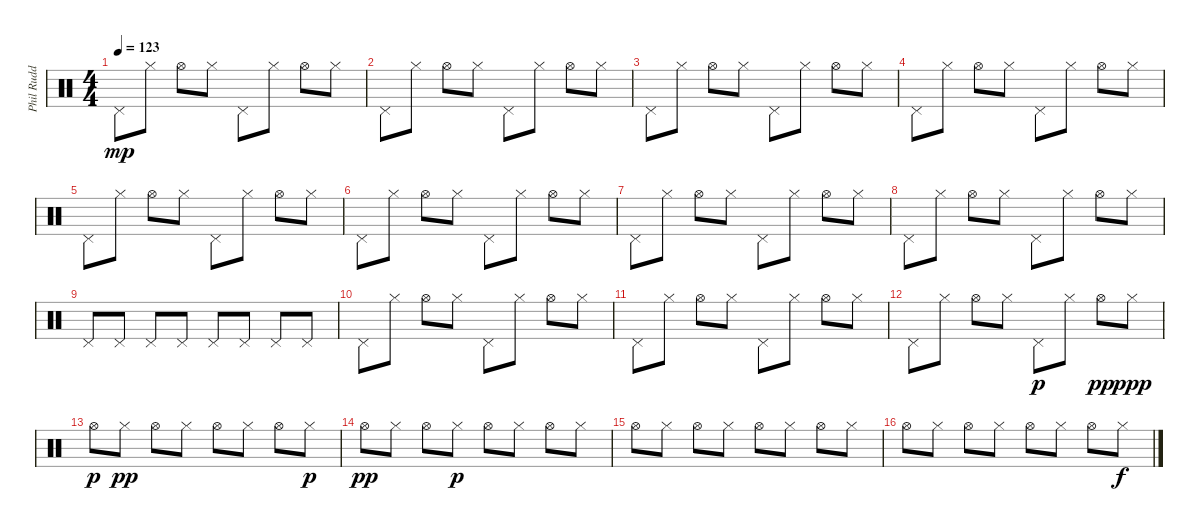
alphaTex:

\track ("Phil Rudd (HiHat)" "Phil Rudd ") {instrument percussion}
\staff {score}
\articulation defaults
\ts (4 4)
\tempo 123
\clef neutral
\ks c "Pedal Hi-Hat (hit)".8{dy mp} "Hi-Hat (closed)".8 "Hi-Hat (open)".8 "Hi-Hat (closed)".8 "Pedal Hi-Hat (hit)".8 "Hi-Hat (closed)".8 "Hi-Hat (open)".8 "Hi-Hat (closed)".8
|
"Pedal Hi-Hat (hit)".8 "Hi-Hat (closed)".8 "Hi-Hat (open)".8 "Hi-Hat (closed)".8 "Pedal Hi-Hat (hit)".8 "Hi-Hat (closed)".8 "Hi-Hat (open)".8 "Hi-Hat (closed)".8 |
"Pedal Hi-Hat (hit)".8 "Hi-Hat (closed)".8 "Hi-Hat (open)".8 "Hi-Hat (closed)".8 "Pedal Hi-Hat (hit)".8 "Hi-Hat (closed)".8 "Hi-Hat (open)".8 "Hi-Hat (closed)".8 |
"Pedal Hi-Hat (hit)".8 "Hi-Hat (closed)".8 "Hi-Hat (open)".8 "Hi-Hat (closed)".8 "Pedal Hi-Hat (hit)".8 "Hi-Hat (closed)".8 "Hi-Hat (open)".8 "Hi-Hat (closed)".8 |
"Pedal Hi-Hat (hit)".8 "Hi-Hat (closed)".8 "Hi-Hat (open)".8 "Hi-Hat (closed)".8 "Pedal Hi-Hat (hit)".8 "Hi-Hat (closed)".8 "Hi-Hat (open)".8 "Hi-Hat (closed)".8 |
"Pedal Hi-Hat (hit)".8 "Hi-Hat (closed)".8 "Hi-Hat (open)".8 "Hi-Hat (closed)".8 "Pedal Hi-Hat (hit)".8 "Hi-Hat (closed)".8 "Hi-Hat (open)".8 "Hi-Hat (closed)".8 |
"Pedal Hi-Hat (hit)".8 "Hi-Hat (closed)".8 "Hi-Hat (open)".8 "Hi-Hat (closed)".8 "Pedal Hi-Hat (hit)".8 "Hi-Hat (closed)".8 "Hi-Hat (open)".8 "Hi-Hat (closed)".8 |
"Pedal Hi-Hat (hit)".8 "Hi-Hat (closed)".8 "Hi-Hat (open)".8 "Hi-Hat (closed)".8 "Pedal Hi-Hat (hit)".8 "Hi-Hat (closed)".8 "Hi-Hat (open)".8 "Hi-Hat (closed)".8 |
"Pedal Hi-Hat (hit)".8 "Pedal Hi-Hat (hit)".8 "Pedal Hi-Hat (hit)".8 "Pedal Hi-Hat (hit)".8 "Pedal Hi-Hat (hit)".8 "Pedal Hi-Hat (hit)".8 "Pedal Hi-Hat (hit)".8 "Pedal Hi-Hat (hit)".8 |
"Pedal Hi-Hat (hit)".8 "Hi-Hat (closed)".8 "Hi-Hat (open)".8 "Hi-Hat (closed)".8 "Pedal Hi-Hat (hit)".8 "Hi-Hat (closed)".8 "Hi-Hat (open)".8 "Hi-Hat (closed)".8 |
"Pedal Hi-Hat (hit)".8 "Hi-Hat (closed)".8 "Hi-Hat (open)".8 "Hi-Hat (closed)".8 "Pedal Hi-Hat (hit)".8 "Hi-Hat (closed)".8 "Hi-Hat (open)".8 "Hi-Hat (closed)".8 |
"Pedal Hi-Hat (hit)".8 "Hi-Hat (closed)".8 "Hi-Hat (open)".8 "Hi-Hat (closed)".8 "Pedal Hi-Hat (hit)".8{dy p} "Hi-Hat (closed)".8 "Hi-Hat (open)".8{dy pp} "Hi-Hat (closed)".8{dy ppp} |
"Hi-Hat (open)".8{dy p} "Hi-Hat (closed)".8{dy pp} "Hi-Hat (open)".8 "Hi-Hat (closed)".8 "Hi-Hat (open)".8 "Hi-Hat (closed)".8 "Hi-Hat (open)".8 "Hi-Hat (closed)".8{dy p} |
"Hi-Hat (open)".8{dy pp} "Hi-Hat (closed)".8 "Hi-Hat (open)".8 "Hi-Hat (closed)".8{dy p} "Hi-Hat (open)".8 "Hi-Hat (closed)".8 "Hi-Hat (open)".8 "Hi-Hat (closed)".8 |
"Hi-Hat (open)".8 "Hi-Hat (closed)".8 "Hi-Hat (open)".8 "Hi-Hat (closed)".8 "Hi-Hat (open)".8 "Hi-Hat (closed)".8 "Hi-Hat (open)".8 "Hi-Hat (closed)".8 |
"Hi-Hat (open)".8 "Hi-Hat (closed)".8 "Hi-Hat (open)".8 "Hi-Hat (closed)".8 "Hi-Hat (open)".8 "Hi-Hat (closed)".8 "Hi-Hat (open)".8 "Hi-Hat (closed)".8{dy f}
